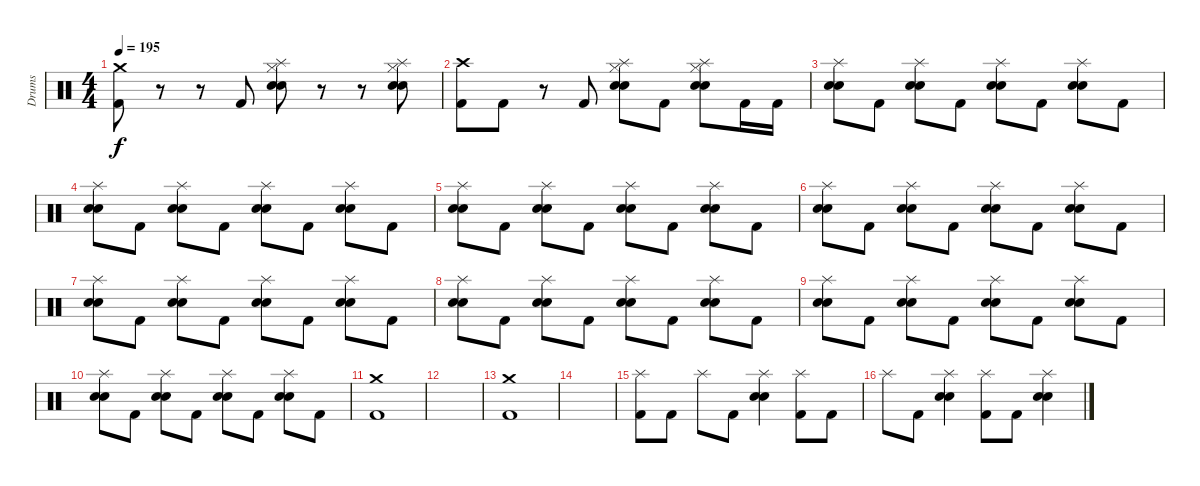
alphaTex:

\track ("Drums" "Drums") {instrument percussion}
\staff {score}
\articulation defaults
\ts (4 4)
\tempo 195
\clef neutral
\ks c
("Crash medium (hit)" "Kick (hit) 2").8{dy f} r.8 r.8 "Kick (hit) 2".8 ("Splash (hit)" "Hi-Hat (closed)" "Electric Snare (hit)" "Snare (hit) 2").8 r.8 r.8 ("Splash (hit)" "Hi-Hat (closed)" "Electric Snare (hit)" "Snare (hit) 2").8 |
("Crash high (hit)" "Kick (hit) 2").8 "Kick (hit) 2".8 r.8 "Kick (hit) 2".8 ("Splash (hit)" "Hi-Hat (closed)" "Electric Snare (hit)" "Snare (hit) 2").8 "Kick (hit) 2".8 ("Splash (hit)" "Hi-Hat (closed)" "Electric Snare (hit)" "Snare (hit) 2").8 "Kick (hit) 2".16 "Kick (hit) 2".16 |
("Splash (hit)" "Electric Snare (hit)" "Snare (hit) 2").8 "Kick (hit) 2".8 ("Splash (hit)" "Electric Snare (hit)" "Snare (hit) 2").8 "Kick (hit) 2".8 ("Splash (hit)" "Electric Snare (hit)" "Snare (hit) 2").8 "Kick (hit) 2".8 ("Splash (hit)" "Electric Snare (hit)" "Snare (hit) 2").8 "Kick (hit) 2".8 |
("Splash (hit)" "Electric Snare (hit)" "Snare (hit) 2").8 "Kick (hit) 2".8 ("Splash (hit)" "Electric Snare (hit)" "Snare (hit) 2").8 "Kick (hit) 2".8 ("Splash (hit)" "Electric Snare (hit)" "Snare (hit) 2").8 "Kick (hit) 2".8 ("Splash (hit)" "Electric Snare (hit)" "Snare (hit) 2").8 "Kick (hit) 2".8 |
("Splash (hit)" "Electric Snare (hit)" "Snare (hit) 2").8 "Kick (hit) 2".8 ("Splash (hit)" "Electric Snare (hit)" "Snare (hit) 2").8 "Kick (hit) 2".8 ("Splash (hit)" "Electric Snare (hit)" "Snare (hit) 2").8 "Kick (hit) 2".8 ("Splash (hit)" "Electric Snare (hit)" "Snare (hit) 2").8 "Kick (hit) 2".8 |
("Splash (hit)" "Electric Snare (hit)" "Snare (hit) 2").8 "Kick (hit) 2".8 ("Splash (hit)" "Electric Snare (hit)" "Snare (hit) 2").8 "Kick (hit) 2".8 ("Splash (hit)" "Electric Snare (hit)" "Snare (hit) 2").8 "Kick (hit) 2".8 ("Splash (hit)" "Electric Snare (hit)" "Snare (hit) 2").8 "Kick (hit) 2".8 |
("Splash (hit)" "Electric Snare (hit)" "Snare (hit) 2").8 "Kick (hit) 2".8 ("Splash (hit)" "Electric Snare (hit)" "Snare (hit) 2").8 "Kick (hit) 2".8 ("Splash (hit)" "Electric Snare (hit)" "Snare (hit) 2").8 "Kick (hit) 2".8 ("Splash (hit)" "Electric Snare (hit)" "Snare (hit) 2").8 "Kick (hit) 2".8 |
("Splash (hit)" "Electric Snare (hit)" "Snare (hit) 2").8 "Kick (hit) 2".8 ("Splash (hit)" "Electric Snare (hit)" "Snare (hit) 2").8 "Kick (hit) 2".8 ("Splash (hit)" "Electric Snare (hit)" "Snare (hit) 2").8 "Kick (hit) 2".8 ("Splash (hit)" "Electric Snare (hit)" "Snare (hit) 2").8 "Kick (hit) 2".8 |
("Splash (hit)" "Electric Snare (hit)" "Snare (hit) 2").8 "Kick (hit) 2".8 ("Splash (hit)" "Electric Snare (hit)" "Snare (hit) 2").8 "Kick (hit) 2".8 ("Splash (hit)" "Electric Snare (hit)" "Snare (hit) 2").8 "Kick (hit) 2".8 ("Splash (hit)" "Electric Snare (hit)" "Snare (hit) 2").8 "Kick (hit) 2".8 |
("Splash (hit)" "Electric Snare (hit)" "Snare (hit) 2").8 "Kick (hit) 2".8 ("Splash (hit)" "Electric Snare (hit)" "Snare (hit) 2").8 "Kick (hit) 2".8 ("Splash (hit)" "Electric Snare (hit)" "Snare (hit) 2").8 "Kick (hit) 2".8 ("Splash (hit)" "Electric Snare (hit)" "Snare (hit) 2").8 "Kick (hit) 2".8 |
("Crash medium (hit)" "Kick (hit) 2").1 |
|
("Crash medium (hit)" "Kick (hit) 2").1 |
|
("Splash (hit)" "Kick (hit) 2").8 "Kick (hit) 2".8 "Splash (hit)".8 "Kick (hit) 2".8 ("Splash (hit)" "Electric Snare (hit)" "Snare (hit) 2").4 ("Splash (hit)" "Kick (hit) 2").8 "Kick (hit) 2".8 |
"Splash (hit)".8 "Kick (hit) 2".8 ("Splash (hit)" "Electric Snare (hit)" "Snare (hit) 2").4 ("Splash (hit)" "Kick (hit) 2").8 "Kick (hit) 2".8 ("Splash (hit)" "Electric Snare (hit)" "Snare (hit) 2").4
